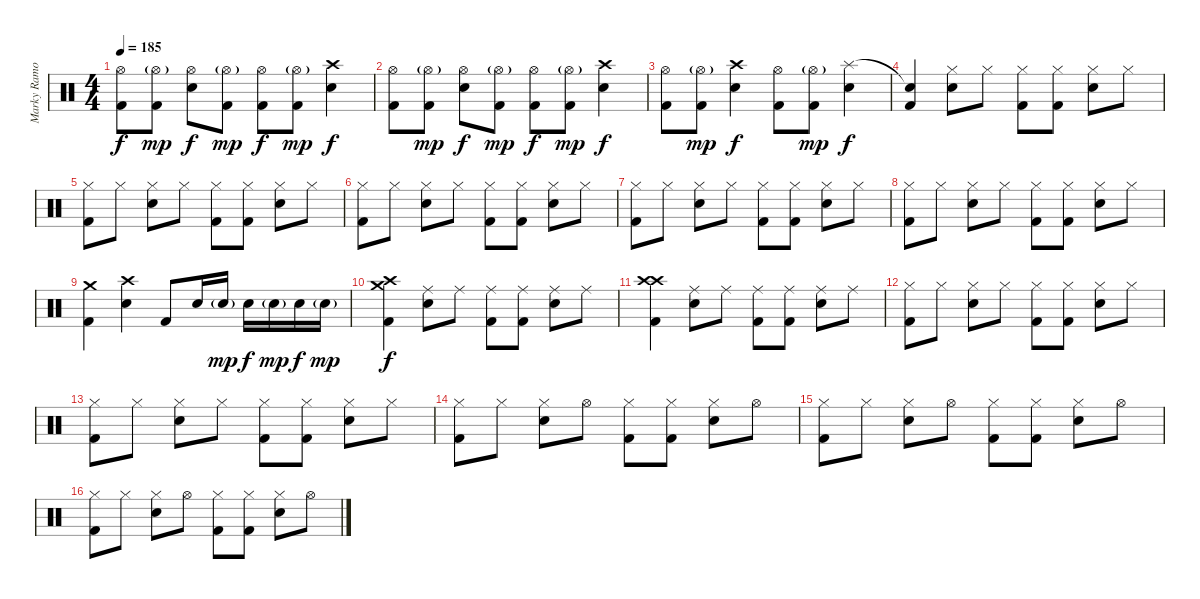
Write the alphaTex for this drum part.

\track ("Marky Ramone" "Marky Ramo") {instrument percussion}
\staff {score}
\articulation defaults
\ts (4 4)
\tempo 185
\clef neutral
\ks c
("Hi-Hat (open)" "Kick (hit) 2").8{dy f} ("Hi-Hat (open)"{g} "Kick (hit) 2").8{dy mp} ("Hi-Hat (open)" "Electric Snare (hit)").8{dy f} ("Hi-Hat (open)"{g} "Kick (hit) 2").8{dy mp} ("Hi-Hat (open)" "Kick (hit) 2").8{dy f} ("Hi-Hat (open)"{g} "Kick (hit) 2").8{dy mp} ("Crash high (hit)" "Electric Snare (hit)").4{dy f} |
("Hi-Hat (open)" "Kick (hit) 2").8 ("Hi-Hat (open)"{g} "Kick (hit) 2").8{dy mp} ("Hi-Hat (open)" "Electric Snare (hit)").8{dy f} ("Hi-Hat (open)"{g} "Kick (hit) 2").8{dy mp} ("Hi-Hat (open)" "Kick (hit) 2").8{dy f} ("Hi-Hat (open)"{g} "Kick (hit) 2").8{dy mp} ("Crash high (hit)" "Electric Snare (hit)").4{dy f} |
("Hi-Hat (open)" "Kick (hit) 2").8 ("Hi-Hat (open)"{g} "Kick (hit) 2").8{dy mp} ("Crash high (hit)" "Electric Snare (hit)").4{dy f} ("Hi-Hat (open)" "Kick (hit) 2").8 ("Hi-Hat (open)"{g} "Kick (hit) 2").8{dy mp} ("Splash (hit)" "Electric Snare (hit)").4{dy f} |
("Snare (hit)"{t} "Kick (hit) 2").4 ("Hi-Hat (closed)" "Electric Snare (hit)").8 "Hi-Hat (closed)".8 ("Hi-Hat (closed)" "Kick (hit) 2").8 ("Hi-Hat (closed)" "Kick (hit) 2").8 ("Hi-Hat (closed)" "Electric Snare (hit)").8 "Hi-Hat (closed)".8 |
("Hi-Hat (closed)" "Kick (hit) 2").8 "Hi-Hat (closed)".8 ("Hi-Hat (closed)" "Electric Snare (hit)").8 "Hi-Hat (closed)".8 ("Hi-Hat (closed)" "Kick (hit) 2").8 ("Hi-Hat (closed)" "Kick (hit) 2").8 ("Hi-Hat (closed)" "Electric Snare (hit)").8 "Hi-Hat (closed)".8 |
("Hi-Hat (closed)" "Kick (hit) 2").8 "Hi-Hat (closed)".8 ("Hi-Hat (closed)" "Electric Snare (hit)").8 "Hi-Hat (closed)".8 ("Hi-Hat (closed)" "Kick (hit) 2").8 ("Hi-Hat (closed)" "Kick (hit) 2").8 ("Hi-Hat (closed)" "Electric Snare (hit)").8 "Hi-Hat (closed)".8 |
("Hi-Hat (closed)" "Kick (hit) 2").8 "Hi-Hat (closed)".8 ("Hi-Hat (closed)" "Electric Snare (hit)").8 "Hi-Hat (closed)".8 ("Hi-Hat (closed)" "Kick (hit) 2").8 ("Hi-Hat (closed)" "Kick (hit) 2").8 ("Hi-Hat (closed)" "Electric Snare (hit)").8 "Hi-Hat (closed)".8 |
("Hi-Hat (closed)" "Kick (hit) 2").8 "Hi-Hat (closed)".8 ("Hi-Hat (closed)" "Electric Snare (hit)").8 "Hi-Hat (closed)".8 ("Hi-Hat (closed)" "Kick (hit) 2").8 ("Hi-Hat (closed)" "Kick (hit) 2").8 ("Hi-Hat (closed)" "Electric Snare (hit)").8 "Hi-Hat (closed)".8 |
("Crash medium (hit)" "Kick (hit) 2").4 ("Crash high (hit)" "Electric Snare (hit)").4 "Kick (hit) 2".8 "Electric Snare (hit)".16 "Electric Snare (hit)"{g}.16{dy mp} "Electric Snare (hit)".16{dy f} "Electric Snare (hit)"{g}.16{dy mp} "Electric Snare (hit)".16{dy f} "Electric Snare (hit)"{g}.16{dy mp} |
("Crash medium (hit)" "Crash high (hit)" "Kick (hit) 2").4{dy f} ("Ride (middle)" "Electric Snare (hit)").8 "Ride (middle)".8 ("Ride (middle)" "Kick (hit) 2").8 ("Ride (middle)" "Kick (hit) 2").8 ("Ride (middle)" "Electric Snare (hit)").8 "Ride (middle)".8 |
("Crash high (hit)" "Crash high (hit)" "Kick (hit) 2").4 ("Ride (middle)" "Electric Snare (hit)").8 "Ride (middle)".8 ("Ride (middle)" "Kick (hit) 2").8 ("Ride (middle)" "Kick (hit) 2").8 ("Ride (middle)" "Electric Snare (hit)").8 "Ride (middle)".8 |
("Hi-Hat (closed)" "Kick (hit) 2").8 "Hi-Hat (closed)".8 ("Hi-Hat (closed)" "Electric Snare (hit)").8 "Hi-Hat (closed)".8 ("Hi-Hat (closed)" "Kick (hit) 2").8 ("Hi-Hat (closed)" "Kick (hit) 2").8 ("Hi-Hat (closed)" "Electric Snare (hit)").8 "Hi-Hat (closed)".8 |
("Hi-Hat (closed)" "Kick (hit) 2").8 "Hi-Hat (closed)".8 ("Hi-Hat (closed)" "Electric Snare (hit)").8 "Hi-Hat (closed)".8 ("Hi-Hat (closed)" "Kick (hit) 2").8 ("Hi-Hat (closed)" "Kick (hit) 2").8 ("Hi-Hat (closed)" "Electric Snare (hit)").8 "Hi-Hat (closed)".8 |
("Hi-Hat (closed)" "Kick (hit) 2").8 "Hi-Hat (closed)".8 ("Hi-Hat (closed)" "Electric Snare (hit)").8 "Hi-Hat (open)".8 ("Hi-Hat (closed)" "Kick (hit) 2").8 ("Hi-Hat (closed)" "Kick (hit) 2").8 ("Hi-Hat (closed)" "Electric Snare (hit)").8 "Hi-Hat (open)".8 |
("Hi-Hat (closed)" "Kick (hit) 2").8 "Hi-Hat (closed)".8 ("Hi-Hat (closed)" "Electric Snare (hit)").8 "Hi-Hat (open)".8 ("Hi-Hat (closed)" "Kick (hit) 2").8 ("Hi-Hat (closed)" "Kick (hit) 2").8 ("Hi-Hat (closed)" "Electric Snare (hit)").8 "Hi-Hat (open)".8 |
("Hi-Hat (closed)" "Kick (hit) 2").8 "Hi-Hat (closed)".8 ("Hi-Hat (closed)" "Electric Snare (hit)").8 "Hi-Hat (open)".8 ("Hi-Hat (closed)" "Kick (hit) 2").8 ("Hi-Hat (closed)" "Kick (hit) 2").8 ("Hi-Hat (closed)" "Electric Snare (hit)").8 "Hi-Hat (open)".8
